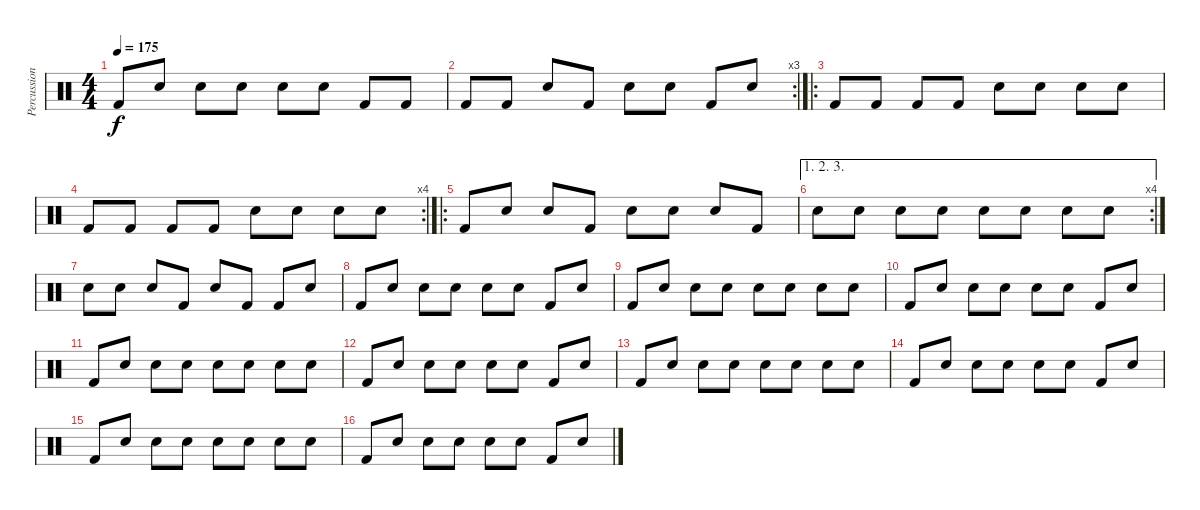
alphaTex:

\track ("Percussion" "Percussion") {instrument percussion}
\staff {score}
\articulation defaults
\ts (4 4)
\tempo 175
\clef neutral
\ks c "Kick (hit) 2".8{dy f} "Snare (hit)".8 "Snare (hit)".8 "Snare (hit)".8 "Electric Snare (hit)".8 "Snare (hit)".8 "Kick (hit) 2".8 "Kick (hit) 2".8
|
\rc 3 "Kick (hit) 2".8 "Kick (hit) 2".8 "Snare (hit)".8 "Kick (hit) 2".8 "Electric Snare (hit)".8 "Snare (hit)".8 "Kick (hit) 2".8 "Snare (hit)".8
|
\ro "Kick (hit) 2".8 "Kick (hit) 2".8 "Kick (hit) 2".8 "Kick (hit) 2".8 "Electric Snare (hit)".8 "Electric Snare (hit)".8 "Electric Snare (hit)".8 "Snare (hit)".8
|
\rc 4 "Kick (hit) 2".8 "Kick (hit) 2".8 "Kick (hit) 2".8 "Kick (hit) 2".8 "Electric Snare (hit)".8 "Electric Snare (hit)".8 "Electric Snare (hit)".8 "Snare (hit)".8
|
\ro "Kick (hit) 2".8 "Snare (hit)".8 "Snare (hit)".8 "Kick (hit) 2".8 "Electric Snare (hit)".8 "Snare (hit)".8 "Snare (hit)".8 "Kick (hit) 2".8
|
\ae (1 2 3)
\rc 4 "Electric Snare (hit)".8 "Snare (hit)".8 "Snare (hit)".8 "Snare (hit)".8 "Electric Snare (hit)".8 "Electric Snare (hit)".8 "Snare (hit)".8 "Snare (hit)".8
|
"Electric Snare (hit)".8 "Snare (hit)".8 "Snare (hit)".8 "Kick (hit) 2".8 "Electric Snare (hit)".8 "Kick (hit) 2".8 "Kick (hit) 2".8 "Snare (hit)".8 |
"Kick (hit) 2".8 "Snare (hit)".8 "Snare (hit)".8 "Snare (hit)".8 "Electric Snare (hit)".8 "Snare (hit)".8 "Kick (hit) 2".8 "Electric Snare (hit)".8 |
"Kick (hit) 2".8 "Snare (hit)".8 "Snare (hit)".8 "Snare (hit)".8 "Electric Snare (hit)".8 "Snare (hit)".8 "Snare (hit)".8 "Snare (hit)".8 |
"Kick (hit) 2".8 "Snare (hit)".8 "Snare (hit)".8 "Snare (hit)".8 "Electric Snare (hit)".8 "Snare (hit)".8 "Kick (hit) 2".8 "Electric Snare (hit)".8 |
"Kick (hit) 2".8 "Snare (hit)".8 "Snare (hit)".8 "Snare (hit)".8 "Electric Snare (hit)".8 "Snare (hit)".8 "Snare (hit)".8 "Snare (hit)".8 |
"Kick (hit) 2".8 "Snare (hit)".8 "Snare (hit)".8 "Snare (hit)".8 "Electric Snare (hit)".8 "Snare (hit)".8 "Kick (hit) 2".8 "Electric Snare (hit)".8 |
"Kick (hit) 2".8 "Snare (hit)".8 "Snare (hit)".8 "Snare (hit)".8 "Electric Snare (hit)".8 "Snare (hit)".8 "Snare (hit)".8 "Snare (hit)".8 |
"Kick (hit) 2".8 "Snare (hit)".8 "Snare (hit)".8 "Snare (hit)".8 "Electric Snare (hit)".8 "Snare (hit)".8 "Kick (hit) 2".8 "Electric Snare (hit)".8 |
"Kick (hit) 2".8 "Snare (hit)".8 "Snare (hit)".8 "Snare (hit)".8 "Electric Snare (hit)".8 "Snare (hit)".8 "Snare (hit)".8 "Snare (hit)".8 |
"Kick (hit) 2".8 "Snare (hit)".8 "Snare (hit)".8 "Snare (hit)".8 "Electric Snare (hit)".8 "Snare (hit)".8 "Kick (hit) 2".8 "Electric Snare (hit)".8
